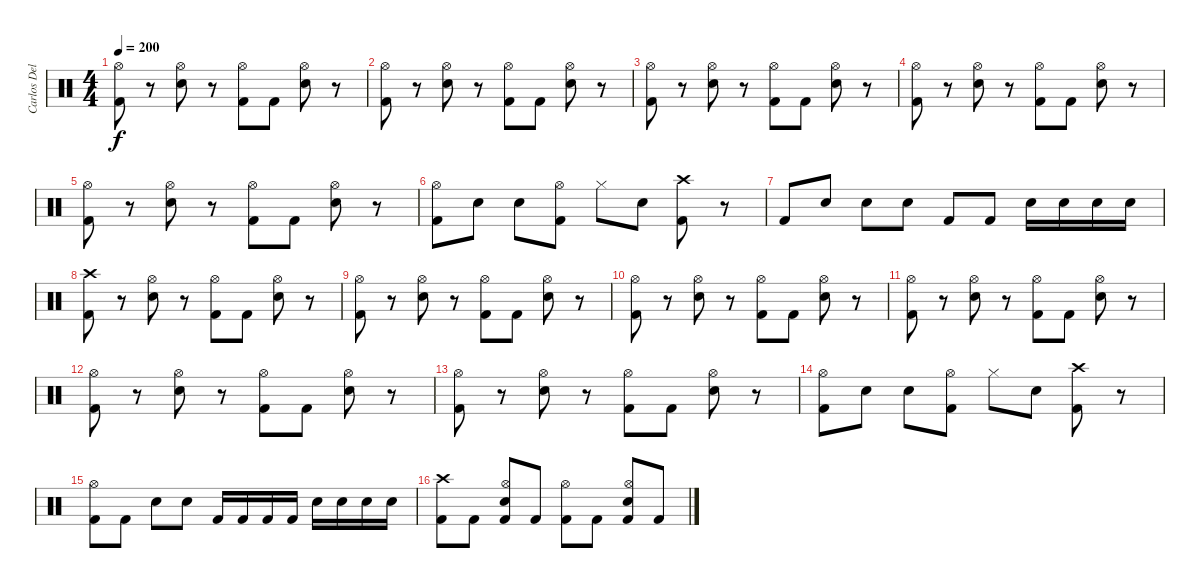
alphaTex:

\track ("Carlos Delgado" "Carlos Del") {instrument percussion}
\staff {score}
\articulation defaults
\ts (4 4)
\tempo 200
\clef neutral
\ks c
("Kick (hit) 2" "Hi-Hat (open)").8{dy f} r.8 ("Electric Snare (hit)" "Hi-Hat (open)").8 r.8 ("Hi-Hat (open)" "Kick (hit) 2").8 "Kick (hit) 2".8 ("Hi-Hat (open)" "Electric Snare (hit)").8 r.8 |
("Kick (hit) 2" "Hi-Hat (open)").8 r.8 ("Electric Snare (hit)" "Hi-Hat (open)").8 r.8 ("Kick (hit) 2" "Hi-Hat (open)").8 "Kick (hit) 2".8 ("Electric Snare (hit)" "Hi-Hat (open)").8 r.8 |
("Kick (hit) 2" "Hi-Hat (open)").8 r.8 ("Hi-Hat (open)" "Electric Snare (hit)").8 r.8 ("Hi-Hat (open)" "Kick (hit) 2").8 "Kick (hit) 2".8 ("Hi-Hat (open)" "Electric Snare (hit)").8 r.8 |
("Kick (hit) 2" "Hi-Hat (open)").8 r.8 ("Electric Snare (hit)" "Hi-Hat (open)").8 r.8 ("Hi-Hat (open)" "Kick (hit) 2").8 "Kick (hit) 2".8 ("Hi-Hat (open)" "Electric Snare (hit)").8 r.8 |
("Kick (hit) 2" "Hi-Hat (open)").8 r.8 ("Electric Snare (hit)" "Hi-Hat (open)").8 r.8 ("Kick (hit) 2" "Hi-Hat (open)").8 "Kick (hit) 2".8 ("Electric Snare (hit)" "Hi-Hat (open)").8 r.8 |
("Kick (hit) 2" "Hi-Hat (open)").8 "Electric Snare (hit)".8 "Electric Snare (hit)".8 ("Kick (hit) 2" "Hi-Hat (open)").8 "Hi-Hat (closed)".8 "Electric Snare (hit)".8 ("Crash high (hit)" "Kick (hit) 2").8 r.8 |
"Kick (hit) 2".8 "Electric Snare (hit)".8 "Electric Snare (hit)".8 "Electric Snare (hit)".8 "Kick (hit) 2".8 "Kick (hit) 2".8 "Electric Snare (hit)".16 "Electric Snare (hit)".16 "Electric Snare (hit)".16 "Electric Snare (hit)".16 |
("Crash high (hit)" "Kick (hit) 2").8 r.8 ("Electric Snare (hit)" "Hi-Hat (open)").8 r.8 ("Kick (hit) 2" "Hi-Hat (open)").8 "Kick (hit) 2".8 ("Electric Snare (hit)" "Hi-Hat (open)").8 r.8 |
("Kick (hit) 2" "Hi-Hat (open)").8 r.8 ("Electric Snare (hit)" "Hi-Hat (open)").8 r.8 ("Hi-Hat (open)" "Kick (hit) 2").8 "Kick (hit) 2".8 ("Hi-Hat (open)" "Electric Snare (hit)").8 r.8 |
("Kick (hit) 2" "Hi-Hat (open)").8 r.8 ("Electric Snare (hit)" "Hi-Hat (open)").8 r.8 ("Kick (hit) 2" "Hi-Hat (open)").8 "Kick (hit) 2".8 ("Electric Snare (hit)" "Hi-Hat (open)").8 r.8 |
("Kick (hit) 2" "Hi-Hat (open)").8 r.8 ("Hi-Hat (open)" "Electric Snare (hit)").8 r.8 ("Hi-Hat (open)" "Kick (hit) 2").8 "Kick (hit) 2".8 ("Hi-Hat (open)" "Electric Snare (hit)").8 r.8 |
("Kick (hit) 2" "Hi-Hat (open)").8 r.8 ("Electric Snare (hit)" "Hi-Hat (open)").8 r.8 ("Hi-Hat (open)" "Kick (hit) 2").8 "Kick (hit) 2".8 ("Hi-Hat (open)" "Electric Snare (hit)").8 r.8 |
("Kick (hit) 2" "Hi-Hat (open)").8 r.8 ("Electric Snare (hit)" "Hi-Hat (open)").8 r.8 ("Kick (hit) 2" "Hi-Hat (open)").8 "Kick (hit) 2".8 ("Electric Snare (hit)" "Hi-Hat (open)").8 r.8 |
("Kick (hit) 2" "Hi-Hat (open)").8 "Electric Snare (hit)".8 "Electric Snare (hit)".8 ("Kick (hit) 2" "Hi-Hat (open)").8 "Hi-Hat (closed)".8 "Electric Snare (hit)".8 ("Crash high (hit)" "Kick (hit) 2").8 r.8 |
("Hi-Hat (open)" "Kick (hit) 2").8 "Kick (hit) 2".8 "Electric Snare (hit)".8 "Electric Snare (hit)".8 "Kick (hit) 2".16 "Kick (hit) 2".16 "Kick (hit) 2".16 "Kick (hit) 2".16 "Electric Snare (hit)".16 "Electric Snare (hit)".16 "Electric Snare (hit)".16 "Electric Snare (hit)".16 |
("Crash high (hit)" "Kick (hit) 2").8 "Kick (hit) 2".8 ("Kick (hit) 2" "Electric Snare (hit)" "Hi-Hat (open)").8 "Kick (hit) 2".8 ("Kick (hit) 2" "Hi-Hat (open)").8 "Kick (hit) 2".8 ("Kick (hit) 2" "Electric Snare (hit)" "Hi-Hat (open)").8 "Kick (hit) 2".8
